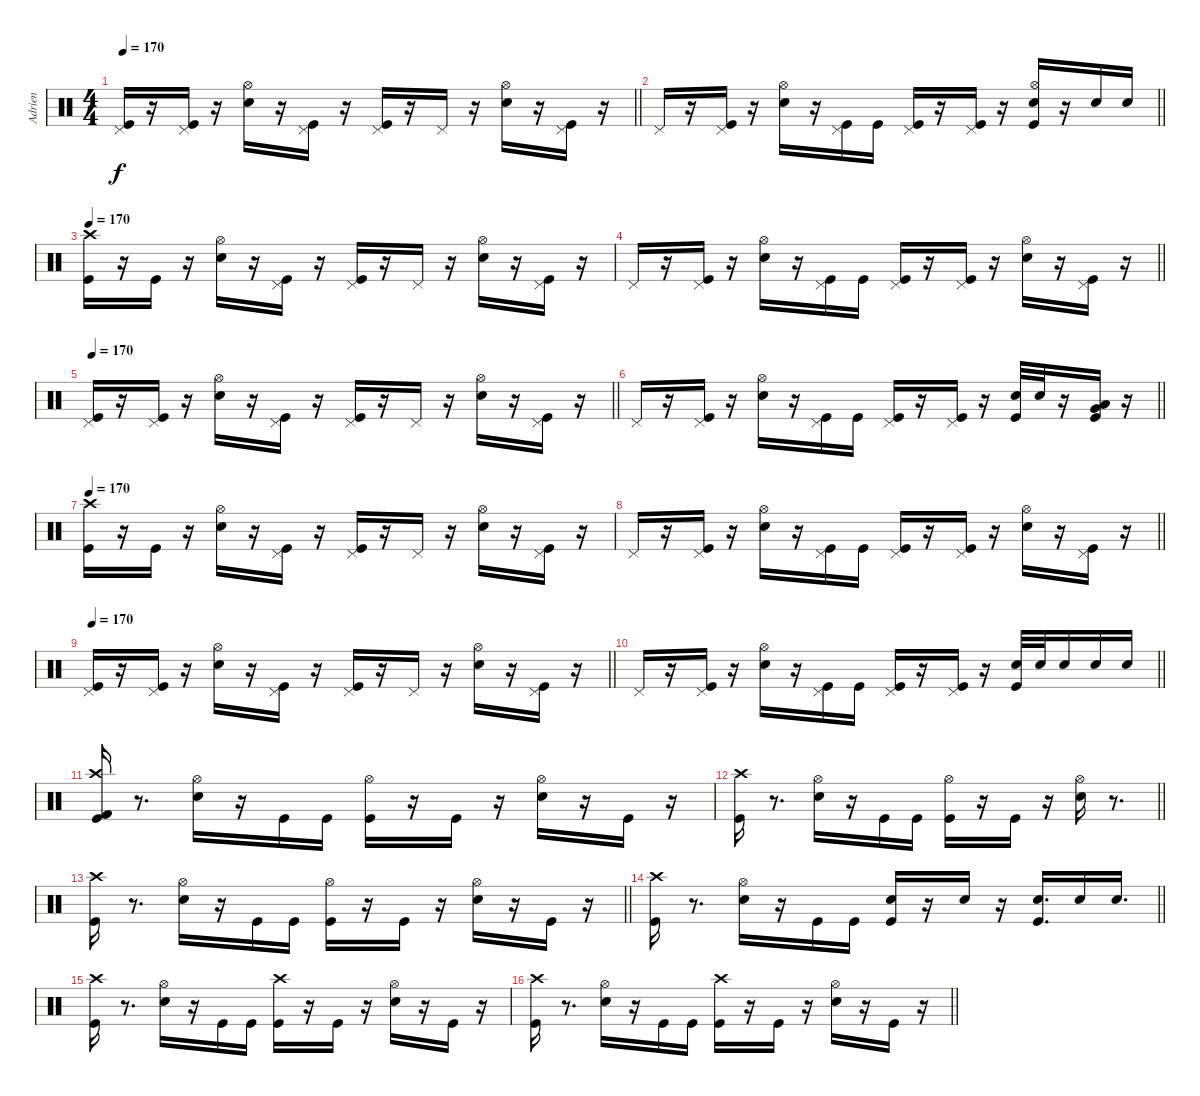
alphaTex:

\track ("Adrien" "Adrien") {instrument percussion}
\staff {score}
\articulation defaults
\ts (4 4)
\tempo 170
\clef neutral
\barLineRight lightlight
\ks c
("Pedal Hi-Hat (hit)" "Kick (hit)").16{dy f} r.16 ("Pedal Hi-Hat (hit)" "Kick (hit)").16 r.16 ("Hi-Hat (open)" "Electric Snare (hit)").16 r.16 ("Pedal Hi-Hat (hit)" "Kick (hit)").16 r.16 ("Pedal Hi-Hat (hit)" "Kick (hit)").16 r.16 "Pedal Hi-Hat (hit)".16 r.16 ("Hi-Hat (open)" "Electric Snare (hit)").16 r.16 ("Pedal Hi-Hat (hit)" "Kick (hit)").16 r.16 |
\barLineRight lightlight "Pedal Hi-Hat (hit)".16
r.16 ("Pedal Hi-Hat (hit)" "Kick (hit)").16 r.16 ("Hi-Hat (open)" "Electric Snare (hit)").16 r.16 ("Pedal Hi-Hat (hit)" "Kick (hit)").16 "Kick (hit)".16 ("Pedal Hi-Hat (hit)" "Kick (hit)").16 r.16 ("Pedal Hi-Hat (hit)" "Kick (hit)").16 r.16 ("Hi-Hat (open)" "Kick (hit)" "Electric Snare (hit)").16 r.16 "Electric Snare (hit)".16 "Electric Snare (hit)".16 |
\tempo 170
("Crash high (hit)" "Kick (hit)").16 r.16 "Kick (hit)".16 r.16 ("Hi-Hat (open)" "Electric Snare (hit)").16 r.16 ("Pedal Hi-Hat (hit)" "Kick (hit)").16 r.16 ("Pedal Hi-Hat (hit)" "Kick (hit)").16 r.16 "Pedal Hi-Hat (hit)".16 r.16 ("Hi-Hat (open)" "Electric Snare (hit)").16 r.16 ("Pedal Hi-Hat (hit)" "Kick (hit)").16 r.16 |
\barLineRight lightlight "Pedal Hi-Hat (hit)".16
r.16 ("Pedal Hi-Hat (hit)" "Kick (hit)").16 r.16 ("Hi-Hat (open)" "Electric Snare (hit)").16 r.16 ("Pedal Hi-Hat (hit)" "Kick (hit)").16 "Kick (hit)".16 ("Pedal Hi-Hat (hit)" "Kick (hit)").16 r.16 ("Pedal Hi-Hat (hit)" "Kick (hit)").16 r.16 ("Hi-Hat (open)" "Electric Snare (hit)").16 r.16 ("Pedal Hi-Hat (hit)" "Kick (hit)").16 r.16 |
\tempo 170
\barLineRight lightlight
("Pedal Hi-Hat (hit)" "Kick (hit)").16 r.16 ("Pedal Hi-Hat (hit)" "Kick (hit)").16 r.16 ("Hi-Hat (open)" "Electric Snare (hit)").16 r.16 ("Pedal Hi-Hat (hit)" "Kick (hit)").16 r.16 ("Pedal Hi-Hat (hit)" "Kick (hit)").16 r.16 "Pedal Hi-Hat (hit)".16 r.16 ("Hi-Hat (open)" "Electric Snare (hit)").16 r.16 ("Pedal Hi-Hat (hit)" "Kick (hit)").16 r.16 |
\barLineRight lightlight "Pedal Hi-Hat (hit)".16
r.16 ("Pedal Hi-Hat (hit)" "Kick (hit)").16 r.16 ("Hi-Hat (open)" "Electric Snare (hit)").16 r.16 ("Pedal Hi-Hat (hit)" "Kick (hit)").16 "Kick (hit)".16 ("Pedal Hi-Hat (hit)" "Kick (hit)").16 r.16 ("Pedal Hi-Hat (hit)" "Kick (hit)").16 r.16 ("Kick (hit)" "Electric Snare (hit)").32 "Electric Snare (hit)".32 r.16 ("Kick (hit)" "Very Low Tom (hit)" "Low Floor Tom (hit)").16 r.16 |
\tempo 170
("Kick (hit)" "Crash high (hit)").16 r.16 "Kick (hit)".16 r.16 ("Hi-Hat (open)" "Electric Snare (hit)").16 r.16 ("Pedal Hi-Hat (hit)" "Kick (hit)").16 r.16 ("Pedal Hi-Hat (hit)" "Kick (hit)").16 r.16 "Pedal Hi-Hat (hit)".16 r.16 ("Hi-Hat (open)" "Electric Snare (hit)").16 r.16 ("Pedal Hi-Hat (hit)" "Kick (hit)").16 r.16 |
\barLineRight lightlight "Pedal Hi-Hat (hit)".16
r.16 ("Pedal Hi-Hat (hit)" "Kick (hit)").16 r.16 ("Hi-Hat (open)" "Electric Snare (hit)").16 r.16 ("Pedal Hi-Hat (hit)" "Kick (hit)").16 "Kick (hit)".16 ("Pedal Hi-Hat (hit)" "Kick (hit)").16 r.16 ("Pedal Hi-Hat (hit)" "Kick (hit)").16 r.16 ("Hi-Hat (open)" "Electric Snare (hit)").16 r.16 ("Pedal Hi-Hat (hit)" "Kick (hit)").16 r.16 |
\tempo 170
\barLineRight lightlight
("Pedal Hi-Hat (hit)" "Kick (hit)").16 r.16 ("Pedal Hi-Hat (hit)" "Kick (hit)").16 r.16 ("Hi-Hat (open)" "Electric Snare (hit)").16 r.16 ("Pedal Hi-Hat (hit)" "Kick (hit)").16 r.16 ("Pedal Hi-Hat (hit)" "Kick (hit)").16 r.16 "Pedal Hi-Hat (hit)".16 r.16 ("Hi-Hat (open)" "Electric Snare (hit)").16 r.16 ("Pedal Hi-Hat (hit)" "Kick (hit)").16 r.16 |
\barLineRight lightlight "Pedal Hi-Hat (hit)".16
r.16 ("Pedal Hi-Hat (hit)" "Kick (hit)").16 r.16 ("Hi-Hat (open)" "Electric Snare (hit)").16 r.16 ("Pedal Hi-Hat (hit)" "Kick (hit)").16 "Kick (hit)".16 ("Pedal Hi-Hat (hit)" "Kick (hit)").16 r.16 ("Pedal Hi-Hat (hit)" "Kick (hit)").16 r.16 ("Kick (hit)" "Electric Snare (hit)").32 "Electric Snare (hit)".32 "Electric Snare (hit)".16 "Electric Snare (hit)".16 "Electric Snare (hit)".16 |
("Kick (hit) 2" "Crash high (hit)" "Kick (hit)").16 r.8{d} ("Hi-Hat (open)" "Electric Snare (hit)").16 r.16 "Kick (hit)".16 "Kick (hit)".16 ("Hi-Hat (open)" "Kick (hit)").16 r.16 "Kick (hit)".16 r.16 ("Hi-Hat (open)" "Electric Snare (hit)").16 r.16 "Kick (hit)".16 r.16 |
\barLineRight lightlight
("Crash high (hit)" "Kick (hit)").16 r.8{d} ("Hi-Hat (open)" "Electric Snare (hit)").16 r.16 "Kick (hit)".16 "Kick (hit)".16 ("Hi-Hat (open)" "Kick (hit)").16 r.16 "Kick (hit)".16 r.16 ("Hi-Hat (open)" "Electric Snare (hit)").16 r.8{d} |
\barLineRight lightlight
("Crash high (hit)" "Kick (hit)").16 r.8{d} ("Hi-Hat (open)" "Electric Snare (hit)").16 r.16 "Kick (hit)".16 "Kick (hit)".16 ("Hi-Hat (open)" "Kick (hit)").16 r.16 "Kick (hit)".16 r.16 ("Hi-Hat (open)" "Electric Snare (hit)").16 r.16 "Kick (hit)".16 r.16 |
\barLineRight lightlight
("Crash high (hit)" "Kick (hit)").16 r.8{d} ("Hi-Hat (open)" "Electric Snare (hit)").16 r.16 "Kick (hit)".16 "Kick (hit)".16 ("Kick (hit)" "Electric Snare (hit)").16 r.16 "Electric Snare (hit)".16 r.16 ("Kick (hit)" "Electric Snare (hit)").16{d} "Electric Snare (hit)".16 "Electric Snare (hit)".16{d} |
("Crash high (hit)" "Kick (hit)").16 r.8{d} ("Hi-Hat (open)" "Electric Snare (hit)").16 r.16 "Kick (hit)".16 "Kick (hit)".16 ("Crash high (hit)" "Kick (hit)").16 r.16 "Kick (hit)".16 r.16 ("Hi-Hat (open)" "Electric Snare (hit)").16 r.16 "Kick (hit)".16 r.16 |
\barLineRight lightlight
("Crash high (hit)" "Kick (hit)").16 r.8{d} ("Hi-Hat (open)" "Electric Snare (hit)").16 r.16 "Kick (hit)".16 "Kick (hit)".16 ("Crash high (hit)" "Kick (hit)").16 r.16 "Kick (hit)".16 r.16 ("Hi-Hat (open)" "Electric Snare (hit)").16 r.16 "Kick (hit)".16 r.16
